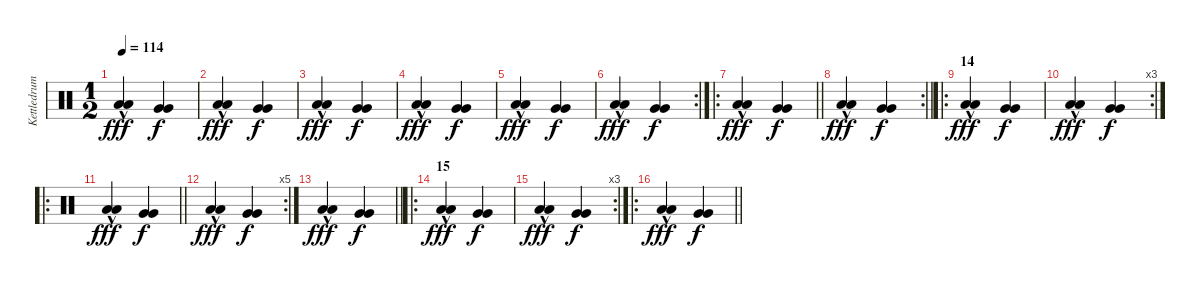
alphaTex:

\track ("Kettledrum" "Kettledrum") {instrument percussion}
\staff {score}
\articulation defaults
\ts (1 2)
\tempo 114
\clef neutral
\ks c
("Low Floor Tom (hit)"{hac} "Low Floor Tom (hit)"{hac}).4{dy fff} ("Very Low Tom (hit)" "Very Low Tom (hit)").4{dy f} |
("Low Floor Tom (hit)"{hac} "Low Floor Tom (hit)"{hac}).4{dy fff} ("Very Low Tom (hit)" "Very Low Tom (hit)").4{dy f} |
("Low Floor Tom (hit)"{hac} "Low Floor Tom (hit)"{hac}).4{dy fff} ("Very Low Tom (hit)" "Very Low Tom (hit)").4{dy f} |
("Low Floor Tom (hit)"{hac} "Low Floor Tom (hit)"{hac}).4{dy fff} ("Very Low Tom (hit)" "Very Low Tom (hit)").4{dy f} |
("Low Floor Tom (hit)"{hac} "Low Floor Tom (hit)"{hac}).4{dy fff} ("Very Low Tom (hit)" "Very Low Tom (hit)").4{dy f} |
\rc 2
("Low Floor Tom (hit)"{hac} "Low Floor Tom (hit)"{hac}).4{dy fff} ("Very Low Tom (hit)" "Very Low Tom (hit)").4{dy f} |
\ro
\barLineRight lightlight
("Low Floor Tom (hit)"{hac} "Low Floor Tom (hit)"{hac}).4{dy fff} ("Very Low Tom (hit)" "Very Low Tom (hit)").4{dy f} |
\rc 2
\barLineRight lightlight
("Low Floor Tom (hit)"{hac} "Low Floor Tom (hit)"{hac}).4{dy fff} ("Very Low Tom (hit)" "Very Low Tom (hit)").4{dy f} |
\ro
\section ("" "14")
("Low Floor Tom (hit)"{hac} "Low Floor Tom (hit)"{hac}).4{dy fff} ("Very Low Tom (hit)" "Very Low Tom (hit)").4{dy f} |
\rc 3
("Low Floor Tom (hit)"{hac} "Low Floor Tom (hit)"{hac}).4{dy fff} ("Very Low Tom (hit)" "Very Low Tom (hit)").4{dy f} |
\ro
\barLineRight lightlight
("Low Floor Tom (hit)"{hac} "Low Floor Tom (hit)"{hac}).4{dy fff} ("Very Low Tom (hit)" "Very Low Tom (hit)").4{dy f} |
\rc 5
("Low Floor Tom (hit)"{hac} "Low Floor Tom (hit)"{hac}).4{dy fff} ("Very Low Tom (hit)" "Very Low Tom (hit)").4{dy f} |
\barLineRight lightlight
("Low Floor Tom (hit)"{hac} "Low Floor Tom (hit)"{hac}).4{dy fff} ("Very Low Tom (hit)" "Very Low Tom (hit)").4{dy f} |
\ro
\section ("" "15")
("Low Floor Tom (hit)"{hac} "Low Floor Tom (hit)"{hac}).4{dy fff} ("Very Low Tom (hit)" "Very Low Tom (hit)").4{dy f} |
\rc 3
("Low Floor Tom (hit)"{hac} "Low Floor Tom (hit)"{hac}).4{dy fff} ("Very Low Tom (hit)" "Very Low Tom (hit)").4{dy f} |
\ro
\barLineRight lightlight
("Low Floor Tom (hit)"{hac} "Low Floor Tom (hit)"{hac}).4{dy fff} ("Very Low Tom (hit)" "Very Low Tom (hit)").4{dy f}
